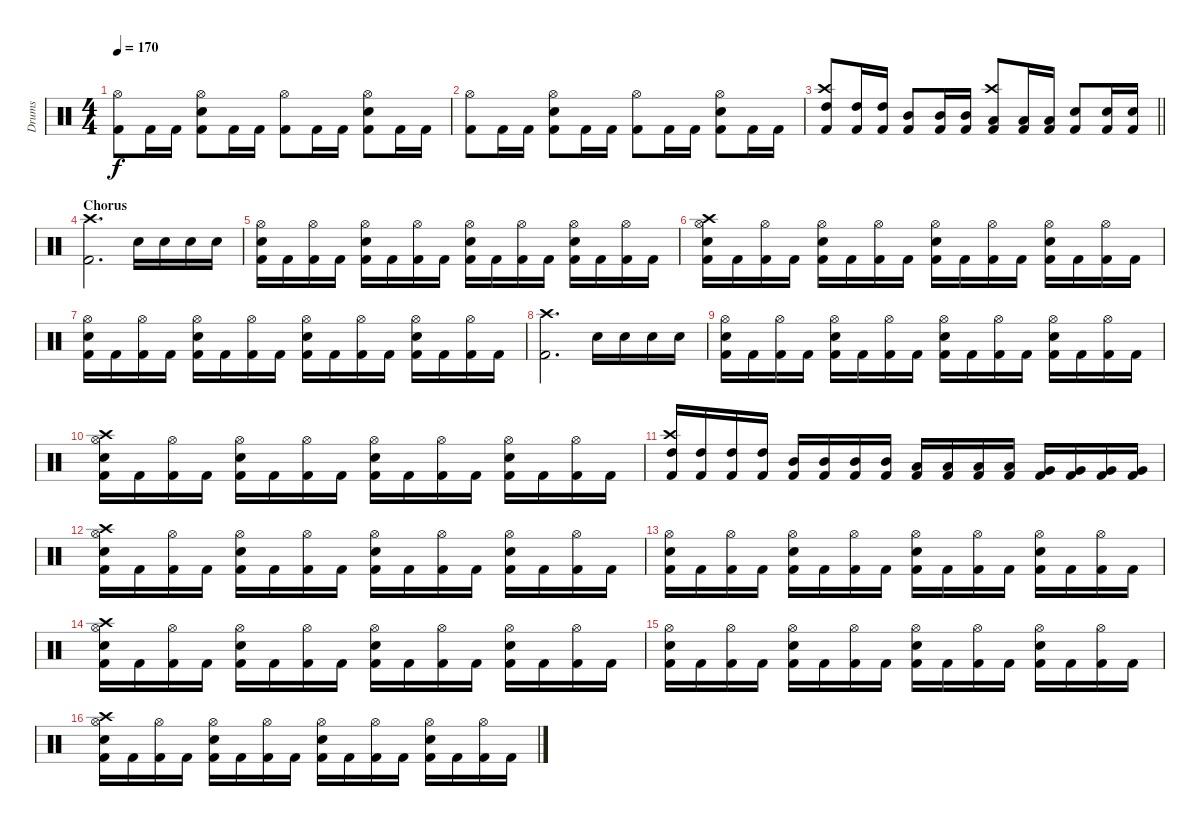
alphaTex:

\track ("Drums" "Drums") {instrument percussion}
\staff {score}
\articulation defaults
\ts (4 4)
\tempo 170
\clef neutral
\ks c
("Hi-Hat (open)" "Kick (hit) 2").8{dy f} "Kick (hit) 2".16 "Kick (hit) 2".16 ("Hi-Hat (open)" "Snare (hit) 2" "Kick (hit) 2").8 "Kick (hit) 2".16 "Kick (hit) 2".16 ("Hi-Hat (open)" "Kick (hit) 2").8 "Kick (hit) 2".16 "Kick (hit) 2".16 ("Hi-Hat (open)" "Snare (hit) 2" "Kick (hit) 2").8 "Kick (hit) 2".16 "Kick (hit) 2".16 |
("Hi-Hat (open)" "Kick (hit) 2").8 "Kick (hit) 2".16 "Kick (hit) 2".16 ("Hi-Hat (open)" "Snare (hit) 2" "Kick (hit) 2").8 "Kick (hit) 2".16 "Kick (hit) 2".16 ("Hi-Hat (open)" "Kick (hit) 2").8 "Kick (hit) 2".16 "Kick (hit) 2".16 ("Hi-Hat (open)" "Snare (hit) 2" "Kick (hit) 2").8 "Kick (hit) 2".16 "Kick (hit) 2".16 |
\barLineRight lightlight
("Crash high (hit)" "High Tom (hit)" "Kick (hit) 2").8 ("High Tom (hit)" "Kick (hit) 2").16 ("High Tom (hit)" "Kick (hit) 2").16 ("Mid Tom (hit)" "Kick (hit) 2").8 ("Mid Tom (hit)" "Kick (hit) 2").16 ("Mid Tom (hit)" "Kick (hit) 2").16 ("Crash high (hit)" "Low Tom (hit)" "Kick (hit) 2").8 ("Low Tom (hit)" "Kick (hit) 2").16 ("Low Tom (hit)" "Kick (hit) 2").16 ("Snare (hit) 2" "Kick (hit) 2").8 ("Snare (hit) 2" "Kick (hit) 2").16 ("Snare (hit) 2" "Kick (hit) 2").16 |
\section ("" "Chorus")
("Crash high (hit)" "Kick (hit) 2").2{d} "Snare (hit) 2".16 "Snare (hit) 2".16 "Snare (hit) 2".16 "Snare (hit) 2".16 |
("Hi-Hat (open)" "Snare (hit) 2" "Kick (hit) 2").16 "Kick (hit) 2".16 ("Hi-Hat (open)" "Kick (hit) 2").16 "Kick (hit) 2".16 ("Hi-Hat (open)" "Snare (hit) 2" "Kick (hit) 2").16 "Kick (hit) 2".16 ("Hi-Hat (open)" "Kick (hit) 2").16 "Kick (hit) 2".16 ("Hi-Hat (open)" "Snare (hit) 2" "Kick (hit) 2").16 "Kick (hit) 2".16 ("Hi-Hat (open)" "Kick (hit) 2").16 "Kick (hit) 2".16 ("Hi-Hat (open)" "Snare (hit) 2" "Kick (hit) 2").16 "Kick (hit) 2".16 ("Hi-Hat (open)" "Kick (hit) 2").16 "Kick (hit) 2".16 |
("Crash high (hit)" "Hi-Hat (open)" "Snare (hit) 2" "Kick (hit) 2").16 "Kick (hit) 2".16 ("Hi-Hat (open)" "Kick (hit) 2").16 "Kick (hit) 2".16 ("Hi-Hat (open)" "Snare (hit) 2" "Kick (hit) 2").16 "Kick (hit) 2".16 ("Hi-Hat (open)" "Kick (hit) 2").16 "Kick (hit) 2".16 ("Hi-Hat (open)" "Snare (hit) 2" "Kick (hit) 2").16 "Kick (hit) 2".16 ("Hi-Hat (open)" "Kick (hit) 2").16 "Kick (hit) 2".16 ("Hi-Hat (open)" "Snare (hit) 2" "Kick (hit) 2").16 "Kick (hit) 2".16 ("Hi-Hat (open)" "Kick (hit) 2").16 "Kick (hit) 2".16 |
("Hi-Hat (open)" "Snare (hit) 2" "Kick (hit) 2").16 "Kick (hit) 2".16 ("Hi-Hat (open)" "Kick (hit) 2").16 "Kick (hit) 2".16 ("Hi-Hat (open)" "Snare (hit) 2" "Kick (hit) 2").16 "Kick (hit) 2".16 ("Hi-Hat (open)" "Kick (hit) 2").16 "Kick (hit) 2".16 ("Hi-Hat (open)" "Snare (hit) 2" "Kick (hit) 2").16 "Kick (hit) 2".16 ("Hi-Hat (open)" "Kick (hit) 2").16 "Kick (hit) 2".16 ("Hi-Hat (open)" "Snare (hit) 2" "Kick (hit) 2").16 "Kick (hit) 2".16 ("Hi-Hat (open)" "Kick (hit) 2").16 "Kick (hit) 2".16 |
("Crash high (hit)" "Kick (hit) 2").2{d} "Snare (hit) 2".16 "Snare (hit) 2".16 "Snare (hit) 2".16 "Snare (hit) 2".16 |
("Hi-Hat (open)" "Snare (hit) 2" "Kick (hit) 2").16 "Kick (hit) 2".16 ("Hi-Hat (open)" "Kick (hit) 2").16 "Kick (hit) 2".16 ("Hi-Hat (open)" "Snare (hit) 2" "Kick (hit) 2").16 "Kick (hit) 2".16 ("Hi-Hat (open)" "Kick (hit) 2").16 "Kick (hit) 2".16 ("Hi-Hat (open)" "Snare (hit) 2" "Kick (hit) 2").16 "Kick (hit) 2".16 ("Hi-Hat (open)" "Kick (hit) 2").16 "Kick (hit) 2".16 ("Hi-Hat (open)" "Snare (hit) 2" "Kick (hit) 2").16 "Kick (hit) 2".16 ("Hi-Hat (open)" "Kick (hit) 2").16 "Kick (hit) 2".16 |
("Crash high (hit)" "Hi-Hat (open)" "Snare (hit) 2" "Kick (hit) 2").16 "Kick (hit) 2".16 ("Hi-Hat (open)" "Kick (hit) 2").16 "Kick (hit) 2".16 ("Hi-Hat (open)" "Snare (hit) 2" "Kick (hit) 2").16 "Kick (hit) 2".16 ("Hi-Hat (open)" "Kick (hit) 2").16 "Kick (hit) 2".16 ("Hi-Hat (open)" "Snare (hit) 2" "Kick (hit) 2").16 "Kick (hit) 2".16 ("Hi-Hat (open)" "Kick (hit) 2").16 "Kick (hit) 2".16 ("Hi-Hat (open)" "Snare (hit) 2" "Kick (hit) 2").16 "Kick (hit) 2".16 ("Hi-Hat (open)" "Kick (hit) 2").16 "Kick (hit) 2".16 |
("Crash high (hit)" "High Tom (hit)" "Kick (hit) 2").16 ("High Tom (hit)" "Kick (hit) 2").16 ("High Tom (hit)" "Kick (hit) 2").16 ("High Tom (hit)" "Kick (hit) 2").16 ("Mid Tom (hit)" "Kick (hit) 2").16 ("Mid Tom (hit)" "Kick (hit) 2").16 ("Mid Tom (hit)" "Kick (hit) 2").16 ("Mid Tom (hit)" "Kick (hit) 2").16 ("Low Tom (hit)" "Kick (hit) 2").16 ("Low Tom (hit)" "Kick (hit) 2").16 ("Low Tom (hit)" "Kick (hit) 2").16 ("Low Tom (hit)" "Kick (hit) 2").16 ("Very Low Tom (hit)" "Kick (hit) 2").16 ("Very Low Tom (hit)" "Kick (hit) 2").16 ("Very Low Tom (hit)" "Kick (hit) 2").16 ("Very Low Tom (hit)" "Kick (hit) 2").16 |
("Crash high (hit)" "Hi-Hat (open)" "Snare (hit) 2" "Kick (hit) 2").16 "Kick (hit) 2".16 ("Hi-Hat (open)" "Kick (hit) 2").16 "Kick (hit) 2".16 ("Hi-Hat (open)" "Snare (hit) 2" "Kick (hit) 2").16 "Kick (hit) 2".16 ("Hi-Hat (open)" "Kick (hit) 2").16 "Kick (hit) 2".16 ("Hi-Hat (open)" "Snare (hit) 2" "Kick (hit) 2").16 "Kick (hit) 2".16 ("Hi-Hat (open)" "Kick (hit) 2").16 "Kick (hit) 2".16 ("Hi-Hat (open)" "Snare (hit) 2" "Kick (hit) 2").16 "Kick (hit) 2".16 ("Hi-Hat (open)" "Kick (hit) 2").16 "Kick (hit) 2".16 |
("Hi-Hat (open)" "Snare (hit) 2" "Kick (hit) 2").16 "Kick (hit) 2".16 ("Hi-Hat (open)" "Kick (hit) 2").16 "Kick (hit) 2".16 ("Hi-Hat (open)" "Snare (hit) 2" "Kick (hit) 2").16 "Kick (hit) 2".16 ("Hi-Hat (open)" "Kick (hit) 2").16 "Kick (hit) 2".16 ("Hi-Hat (open)" "Snare (hit) 2" "Kick (hit) 2").16 "Kick (hit) 2".16 ("Hi-Hat (open)" "Kick (hit) 2").16 "Kick (hit) 2".16 ("Hi-Hat (open)" "Snare (hit) 2" "Kick (hit) 2").16 "Kick (hit) 2".16 ("Hi-Hat (open)" "Kick (hit) 2").16 "Kick (hit) 2".16 |
("Crash high (hit)" "Hi-Hat (open)" "Snare (hit) 2" "Kick (hit) 2").16 "Kick (hit) 2".16 ("Hi-Hat (open)" "Kick (hit) 2").16 "Kick (hit) 2".16 ("Hi-Hat (open)" "Snare (hit) 2" "Kick (hit) 2").16 "Kick (hit) 2".16 ("Hi-Hat (open)" "Kick (hit) 2").16 "Kick (hit) 2".16 ("Hi-Hat (open)" "Snare (hit) 2" "Kick (hit) 2").16 "Kick (hit) 2".16 ("Hi-Hat (open)" "Kick (hit) 2").16 "Kick (hit) 2".16 ("Hi-Hat (open)" "Snare (hit) 2" "Kick (hit) 2").16 "Kick (hit) 2".16 ("Hi-Hat (open)" "Kick (hit) 2").16 "Kick (hit) 2".16 |
("Hi-Hat (open)" "Snare (hit) 2" "Kick (hit) 2").16 "Kick (hit) 2".16 ("Hi-Hat (open)" "Kick (hit) 2").16 "Kick (hit) 2".16 ("Hi-Hat (open)" "Snare (hit) 2" "Kick (hit) 2").16 "Kick (hit) 2".16 ("Hi-Hat (open)" "Kick (hit) 2").16 "Kick (hit) 2".16 ("Hi-Hat (open)" "Snare (hit) 2" "Kick (hit) 2").16 "Kick (hit) 2".16 ("Hi-Hat (open)" "Kick (hit) 2").16 "Kick (hit) 2".16 ("Hi-Hat (open)" "Snare (hit) 2" "Kick (hit) 2").16 "Kick (hit) 2".16 ("Hi-Hat (open)" "Kick (hit) 2").16 "Kick (hit) 2".16 |
("Crash high (hit)" "Hi-Hat (open)" "Snare (hit) 2" "Kick (hit) 2").16 "Kick (hit) 2".16 ("Hi-Hat (open)" "Kick (hit) 2").16 "Kick (hit) 2".16 ("Hi-Hat (open)" "Snare (hit) 2" "Kick (hit) 2").16 "Kick (hit) 2".16 ("Hi-Hat (open)" "Kick (hit) 2").16 "Kick (hit) 2".16 ("Hi-Hat (open)" "Snare (hit) 2" "Kick (hit) 2").16 "Kick (hit) 2".16 ("Hi-Hat (open)" "Kick (hit) 2").16 "Kick (hit) 2".16 ("Hi-Hat (open)" "Snare (hit) 2" "Kick (hit) 2").16 "Kick (hit) 2".16 ("Hi-Hat (open)" "Kick (hit) 2").16 "Kick (hit) 2".16
